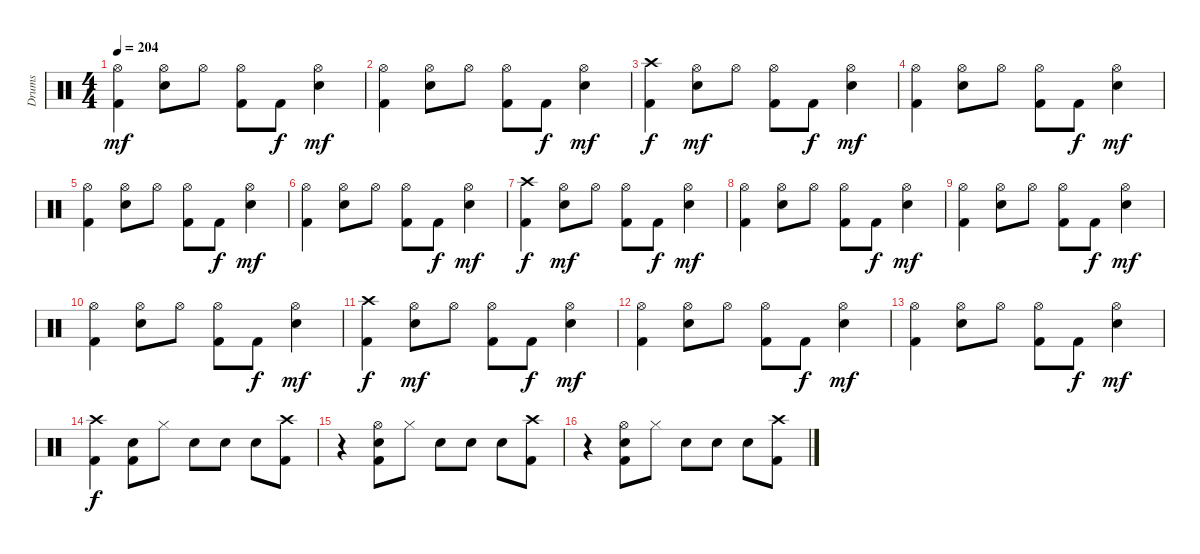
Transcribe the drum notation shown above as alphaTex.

\track ("Drums" "Drums") {instrument percussion}
\staff {score}
\articulation defaults
\ts (4 4)
\tempo 204
\clef neutral
\ks c
("Kick (hit) 2" "Hi-Hat (open)").4{dy mf} ("Electric Snare (hit)" "Hi-Hat (open)").8 "Hi-Hat (open)".8 ("Kick (hit) 2" "Hi-Hat (open)").8 "Kick (hit) 2".8{dy f} ("Electric Snare (hit)" "Hi-Hat (open)").4{dy mf} |
("Kick (hit) 2" "Hi-Hat (open)").4 ("Electric Snare (hit)" "Hi-Hat (open)").8 "Hi-Hat (open)".8 ("Kick (hit) 2" "Hi-Hat (open)").8 "Kick (hit) 2".8{dy f} ("Electric Snare (hit)" "Hi-Hat (open)").4{dy mf} |
("Kick (hit) 2" "Crash high (hit)").4{dy f} ("Snare (hit) 2" "Hi-Hat (open)").8{dy mf} "Hi-Hat (open)".8 ("Kick (hit) 2" "Hi-Hat (open)").8 "Kick (hit) 2".8{dy f} ("Snare (hit) 2" "Hi-Hat (open)").4{dy mf} |
("Kick (hit) 2" "Hi-Hat (open)").4 ("Electric Snare (hit)" "Hi-Hat (open)").8 "Hi-Hat (open)".8 ("Kick (hit) 2" "Hi-Hat (open)").8 "Kick (hit) 2".8{dy f} ("Electric Snare (hit)" "Hi-Hat (open)").4{dy mf} |
("Kick (hit) 2" "Hi-Hat (open)").4 ("Electric Snare (hit)" "Hi-Hat (open)").8 "Hi-Hat (open)".8 ("Kick (hit) 2" "Hi-Hat (open)").8 "Kick (hit) 2".8{dy f} ("Electric Snare (hit)" "Hi-Hat (open)").4{dy mf} |
("Kick (hit) 2" "Hi-Hat (open)").4 ("Electric Snare (hit)" "Hi-Hat (open)").8 "Hi-Hat (open)".8 ("Kick (hit) 2" "Hi-Hat (open)").8 "Kick (hit) 2".8{dy f} ("Electric Snare (hit)" "Hi-Hat (open)").4{dy mf} |
("Kick (hit) 2" "Crash high (hit)").4{dy f} ("Snare (hit) 2" "Hi-Hat (open)").8{dy mf} "Hi-Hat (open)".8 ("Kick (hit) 2" "Hi-Hat (open)").8 "Kick (hit) 2".8{dy f} ("Snare (hit) 2" "Hi-Hat (open)").4{dy mf} |
("Kick (hit) 2" "Hi-Hat (open)").4 ("Electric Snare (hit)" "Hi-Hat (open)").8 "Hi-Hat (open)".8 ("Kick (hit) 2" "Hi-Hat (open)").8 "Kick (hit) 2".8{dy f} ("Electric Snare (hit)" "Hi-Hat (open)").4{dy mf} |
("Kick (hit) 2" "Hi-Hat (open)").4 ("Electric Snare (hit)" "Hi-Hat (open)").8 "Hi-Hat (open)".8 ("Kick (hit) 2" "Hi-Hat (open)").8 "Kick (hit) 2".8{dy f} ("Electric Snare (hit)" "Hi-Hat (open)").4{dy mf} |
("Kick (hit) 2" "Hi-Hat (open)").4 ("Electric Snare (hit)" "Hi-Hat (open)").8 "Hi-Hat (open)".8 ("Kick (hit) 2" "Hi-Hat (open)").8 "Kick (hit) 2".8{dy f} ("Electric Snare (hit)" "Hi-Hat (open)").4{dy mf} |
("Kick (hit) 2" "Crash high (hit)").4{dy f} ("Snare (hit) 2" "Hi-Hat (open)").8{dy mf} "Hi-Hat (open)".8 ("Kick (hit) 2" "Hi-Hat (open)").8 "Kick (hit) 2".8{dy f} ("Snare (hit) 2" "Hi-Hat (open)").4{dy mf} |
("Kick (hit) 2" "Hi-Hat (open)").4 ("Electric Snare (hit)" "Hi-Hat (open)").8 "Hi-Hat (open)".8 ("Kick (hit) 2" "Hi-Hat (open)").8 "Kick (hit) 2".8{dy f} ("Electric Snare (hit)" "Hi-Hat (open)").4{dy mf} |
("Kick (hit) 2" "Hi-Hat (open)").4 ("Electric Snare (hit)" "Hi-Hat (open)").8 "Hi-Hat (open)".8 ("Kick (hit) 2" "Hi-Hat (open)").8 "Kick (hit) 2".8{dy f} ("Electric Snare (hit)" "Hi-Hat (open)").4{dy mf} |
("Crash high (hit)" "Kick (hit) 2").4{dy f} ("Snare (hit) 2" "Kick (hit) 2").8 "Hi-Hat (closed)".8 "Snare (hit) 2".8 "Snare (hit) 2".8 "Snare (hit) 2".8 ("Kick (hit) 2" "Crash high (hit)").8 |
r.4 ("Electric Snare (hit)" "Kick (hit) 2" "Hi-Hat (open)").8 "Hi-Hat (closed)".8 "Snare (hit) 2".8 "Snare (hit) 2".8 "Snare (hit) 2".8 ("Kick (hit) 2" "Crash high (hit)").8 |
r.4 ("Electric Snare (hit)" "Kick (hit) 2" "Hi-Hat (open)").8 "Hi-Hat (closed)".8 "Snare (hit) 2".8 "Snare (hit) 2".8 "Snare (hit) 2".8 ("Kick (hit) 2" "Crash high (hit)").8
